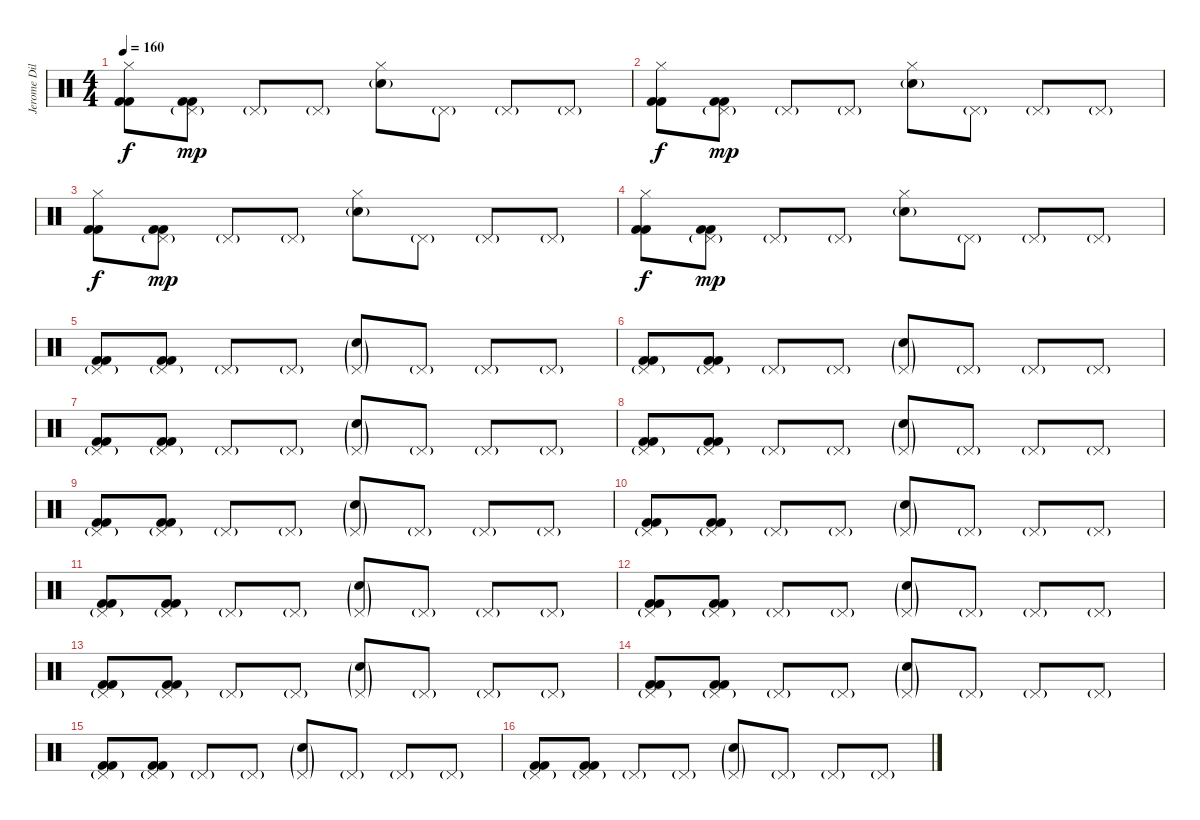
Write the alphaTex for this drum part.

\track ("Jerome Dillon" "Jerome Dil") {instrument percussion}
\staff {score}
\articulation defaults
\ts (4 4)
\tempo 160
\clef neutral
\ks c
("Hi-Hat (closed)" "Kick (hit) 2" "Kick (hit) 2").8{dy f} ("Pedal Hi-Hat (hit)"{g} "Kick (hit) 2" "Kick (hit) 2").8{dy mp} "Pedal Hi-Hat (hit)"{g}.8 "Pedal Hi-Hat (hit)"{g}.8 ("Hi-Hat (closed)" "Electric Snare (hit)"{g}).8 "Pedal Hi-Hat (hit)"{g}.8 "Pedal Hi-Hat (hit)"{g}.8 "Pedal Hi-Hat (hit)"{g}.8 |
("Hi-Hat (closed)" "Kick (hit) 2" "Kick (hit) 2").8{dy f} ("Pedal Hi-Hat (hit)"{g} "Kick (hit) 2" "Kick (hit) 2").8{dy mp} "Pedal Hi-Hat (hit)"{g}.8 "Pedal Hi-Hat (hit)"{g}.8 ("Hi-Hat (closed)" "Electric Snare (hit)"{g}).8 "Pedal Hi-Hat (hit)"{g}.8 "Pedal Hi-Hat (hit)"{g}.8 "Pedal Hi-Hat (hit)"{g}.8 |
("Hi-Hat (closed)" "Kick (hit) 2" "Kick (hit) 2").8{dy f} ("Pedal Hi-Hat (hit)"{g} "Kick (hit) 2" "Kick (hit) 2").8{dy mp} "Pedal Hi-Hat (hit)"{g}.8 "Pedal Hi-Hat (hit)"{g}.8 ("Hi-Hat (closed)" "Electric Snare (hit)"{g}).8 "Pedal Hi-Hat (hit)"{g}.8 "Pedal Hi-Hat (hit)"{g}.8 "Pedal Hi-Hat (hit)"{g}.8 |
("Hi-Hat (closed)" "Kick (hit) 2" "Kick (hit) 2").8{dy f} ("Pedal Hi-Hat (hit)"{g} "Kick (hit) 2" "Kick (hit) 2").8{dy mp} "Pedal Hi-Hat (hit)"{g}.8 "Pedal Hi-Hat (hit)"{g}.8 ("Hi-Hat (closed)" "Electric Snare (hit)"{g}).8 "Pedal Hi-Hat (hit)"{g}.8 "Pedal Hi-Hat (hit)"{g}.8 "Pedal Hi-Hat (hit)"{g}.8 |
("Pedal Hi-Hat (hit)"{g} "Kick (hit) 2" "Kick (hit) 2").8 ("Pedal Hi-Hat (hit)"{g} "Kick (hit) 2" "Kick (hit) 2").8 "Pedal Hi-Hat (hit)"{g}.8 "Pedal Hi-Hat (hit)"{g}.8 ("Pedal Hi-Hat (hit)"{g} "Electric Snare (hit)"{g}).8 "Pedal Hi-Hat (hit)"{g}.8 "Pedal Hi-Hat (hit)"{g}.8 "Pedal Hi-Hat (hit)"{g}.8 |
("Pedal Hi-Hat (hit)"{g} "Kick (hit) 2" "Kick (hit) 2").8 ("Pedal Hi-Hat (hit)"{g} "Kick (hit) 2" "Kick (hit) 2").8 "Pedal Hi-Hat (hit)"{g}.8 "Pedal Hi-Hat (hit)"{g}.8 ("Pedal Hi-Hat (hit)"{g} "Electric Snare (hit)"{g}).8 "Pedal Hi-Hat (hit)"{g}.8 "Pedal Hi-Hat (hit)"{g}.8 "Pedal Hi-Hat (hit)"{g}.8 |
("Pedal Hi-Hat (hit)"{g} "Kick (hit) 2" "Kick (hit) 2").8 ("Pedal Hi-Hat (hit)"{g} "Kick (hit) 2" "Kick (hit) 2").8 "Pedal Hi-Hat (hit)"{g}.8 "Pedal Hi-Hat (hit)"{g}.8 ("Pedal Hi-Hat (hit)"{g} "Electric Snare (hit)"{g}).8 "Pedal Hi-Hat (hit)"{g}.8 "Pedal Hi-Hat (hit)"{g}.8 "Pedal Hi-Hat (hit)"{g}.8 |
("Pedal Hi-Hat (hit)"{g} "Kick (hit) 2" "Kick (hit) 2").8 ("Pedal Hi-Hat (hit)"{g} "Kick (hit) 2" "Kick (hit) 2").8 "Pedal Hi-Hat (hit)"{g}.8 "Pedal Hi-Hat (hit)"{g}.8 ("Pedal Hi-Hat (hit)"{g} "Electric Snare (hit)"{g}).8 "Pedal Hi-Hat (hit)"{g}.8 "Pedal Hi-Hat (hit)"{g}.8 "Pedal Hi-Hat (hit)"{g}.8 |
("Pedal Hi-Hat (hit)"{g} "Kick (hit) 2" "Kick (hit) 2").8 ("Pedal Hi-Hat (hit)"{g} "Kick (hit) 2" "Kick (hit) 2").8 "Pedal Hi-Hat (hit)"{g}.8 "Pedal Hi-Hat (hit)"{g}.8 ("Pedal Hi-Hat (hit)"{g} "Electric Snare (hit)"{g}).8 "Pedal Hi-Hat (hit)"{g}.8 "Pedal Hi-Hat (hit)"{g}.8 "Pedal Hi-Hat (hit)"{g}.8 |
("Pedal Hi-Hat (hit)"{g} "Kick (hit) 2" "Kick (hit) 2").8 ("Pedal Hi-Hat (hit)"{g} "Kick (hit) 2" "Kick (hit) 2").8 "Pedal Hi-Hat (hit)"{g}.8 "Pedal Hi-Hat (hit)"{g}.8 ("Pedal Hi-Hat (hit)"{g} "Electric Snare (hit)"{g}).8 "Pedal Hi-Hat (hit)"{g}.8 "Pedal Hi-Hat (hit)"{g}.8 "Pedal Hi-Hat (hit)"{g}.8 |
("Pedal Hi-Hat (hit)"{g} "Kick (hit) 2" "Kick (hit) 2").8 ("Pedal Hi-Hat (hit)"{g} "Kick (hit) 2" "Kick (hit) 2").8 "Pedal Hi-Hat (hit)"{g}.8 "Pedal Hi-Hat (hit)"{g}.8 ("Pedal Hi-Hat (hit)"{g} "Electric Snare (hit)"{g}).8 "Pedal Hi-Hat (hit)"{g}.8 "Pedal Hi-Hat (hit)"{g}.8 "Pedal Hi-Hat (hit)"{g}.8 |
("Pedal Hi-Hat (hit)"{g} "Kick (hit) 2" "Kick (hit) 2").8 ("Pedal Hi-Hat (hit)"{g} "Kick (hit) 2" "Kick (hit) 2").8 "Pedal Hi-Hat (hit)"{g}.8 "Pedal Hi-Hat (hit)"{g}.8 ("Pedal Hi-Hat (hit)"{g} "Electric Snare (hit)"{g}).8 "Pedal Hi-Hat (hit)"{g}.8 "Pedal Hi-Hat (hit)"{g}.8 "Pedal Hi-Hat (hit)"{g}.8 |
("Pedal Hi-Hat (hit)"{g} "Kick (hit) 2" "Kick (hit) 2").8 ("Pedal Hi-Hat (hit)"{g} "Kick (hit) 2" "Kick (hit) 2").8 "Pedal Hi-Hat (hit)"{g}.8 "Pedal Hi-Hat (hit)"{g}.8 ("Pedal Hi-Hat (hit)"{g} "Electric Snare (hit)"{g}).8 "Pedal Hi-Hat (hit)"{g}.8 "Pedal Hi-Hat (hit)"{g}.8 "Pedal Hi-Hat (hit)"{g}.8 |
("Pedal Hi-Hat (hit)"{g} "Kick (hit) 2" "Kick (hit) 2").8 ("Pedal Hi-Hat (hit)"{g} "Kick (hit) 2" "Kick (hit) 2").8 "Pedal Hi-Hat (hit)"{g}.8 "Pedal Hi-Hat (hit)"{g}.8 ("Pedal Hi-Hat (hit)"{g} "Electric Snare (hit)"{g}).8 "Pedal Hi-Hat (hit)"{g}.8 "Pedal Hi-Hat (hit)"{g}.8 "Pedal Hi-Hat (hit)"{g}.8 |
("Pedal Hi-Hat (hit)"{g} "Kick (hit) 2" "Kick (hit) 2").8 ("Pedal Hi-Hat (hit)"{g} "Kick (hit) 2" "Kick (hit) 2").8 "Pedal Hi-Hat (hit)"{g}.8 "Pedal Hi-Hat (hit)"{g}.8 ("Pedal Hi-Hat (hit)"{g} "Electric Snare (hit)"{g}).8 "Pedal Hi-Hat (hit)"{g}.8 "Pedal Hi-Hat (hit)"{g}.8 "Pedal Hi-Hat (hit)"{g}.8 |
("Pedal Hi-Hat (hit)"{g} "Kick (hit) 2" "Kick (hit) 2").8 ("Pedal Hi-Hat (hit)"{g} "Kick (hit) 2" "Kick (hit) 2").8 "Pedal Hi-Hat (hit)"{g}.8 "Pedal Hi-Hat (hit)"{g}.8 ("Pedal Hi-Hat (hit)"{g} "Electric Snare (hit)"{g}).8 "Pedal Hi-Hat (hit)"{g}.8 "Pedal Hi-Hat (hit)"{g}.8 "Pedal Hi-Hat (hit)"{g}.8
